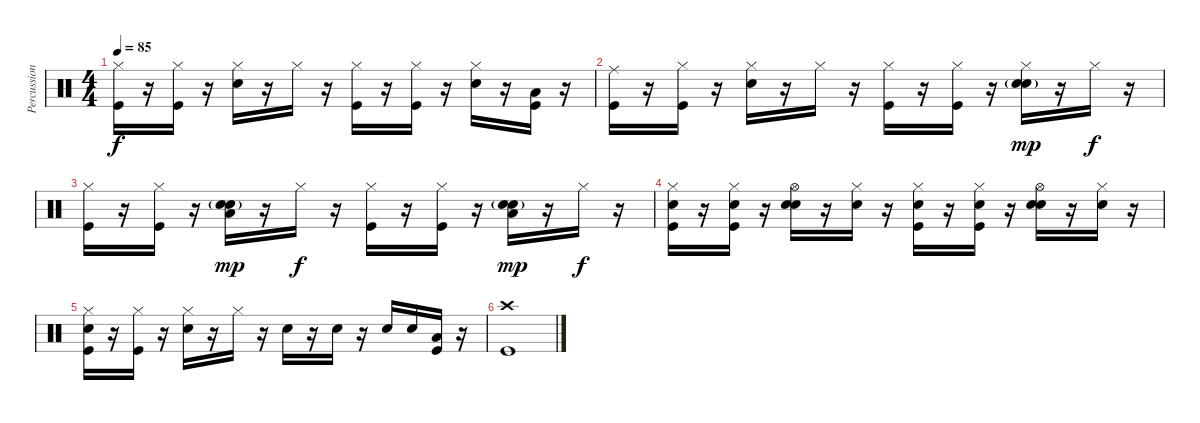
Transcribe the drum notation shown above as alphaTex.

\track ("Percussion" "Percussion") {instrument percussion}
\staff {score}
\articulation defaults
\ts (4 4)
\tempo 85
\clef neutral
\ks c
("Hi-Hat (closed)" "Kick (hit)").16{dy f} r.16 ("Hi-Hat (closed)" "Kick (hit)").16 r.16 ("Hi-Hat (closed)" "Snare (hit) 2").16 r.16 "Hi-Hat (closed)".16 r.16 ("Hi-Hat (closed)" "Kick (hit)").16 r.16 ("Hi-Hat (closed)" "Kick (hit)").16 r.16 ("Hi-Hat (closed)" "Snare (hit) 2").16 r.16 ("Low Tom (hit)" "Kick (hit)").16 r.16 |
("Ride (middle)" "Kick (hit)").16 r.16 ("Hi-Hat (closed)" "Kick (hit)").16 r.16 ("Hi-Hat (closed)" "Snare (hit) 2").16 r.16 "Hi-Hat (closed)".16 r.16 ("Hi-Hat (closed)" "Kick (hit)").16 r.16 ("Hi-Hat (closed)" "Kick (hit)").16 r.16 ("Hi-Hat (closed)" "Hand Clap (hit)"{g} "Snare (hit) 2").16{dy mp} r.16 "Hi-Hat (closed)".16{dy f} r.16 |
("Hi-Hat (closed)" "Kick (hit)").16 r.16 ("Hi-Hat (closed)" "Kick (hit)").16 r.16 ("Low Tom (hit)" "Hand Clap (hit)" "Snare (hit) 2"{g}).16{dy mp} r.16 "Hi-Hat (closed)".16{dy f} r.16 ("Hi-Hat (closed)" "Kick (hit)").16 r.16 ("Hi-Hat (closed)" "Kick (hit)").16 r.16 ("Low Tom (hit)" "Hand Clap (hit)" "Snare (hit) 2"{g}).16{dy mp} r.16 "Hi-Hat (closed)".16{dy f} r.16 |
("Hi-Hat (closed)" "Hand Clap (hit)" "Kick (hit)").16 r.16 ("Hi-Hat (closed)" "Hand Clap (hit)" "Kick (hit)").16 r.16 ("Hi-Hat (open)" "Hand Clap (hit)" "Snare (hit) 2").16 r.16 ("Hi-Hat (closed)" "Hand Clap (hit)").16 r.16 ("Hi-Hat (closed)" "Hand Clap (hit)" "Kick (hit)").16 r.16 ("Hi-Hat (closed)" "Hand Clap (hit)" "Kick (hit)").16 r.16 ("Hi-Hat (open)" "Hand Clap (hit)" "Snare (hit) 2").16 r.16 ("Hi-Hat (closed)" "Hand Clap (hit)").16 r.16 |
("Hi-Hat (closed)" "Hand Clap (hit)" "Kick (hit)").16 r.16 ("Hi-Hat (closed)" "Kick (hit)").16 r.16 ("Hi-Hat (closed)" "Snare (hit) 2").16 r.16 "Hi-Hat (closed)".16 r.16 "Snare (hit) 2".16 r.16 "Snare (hit) 2".16 r.16 "Snare (hit) 2".16 "Snare (hit) 2".16 ("Low Tom (hit)" "Kick (hit)").16 r.16 |
("Crash high (hit)" "Kick (hit)").1
